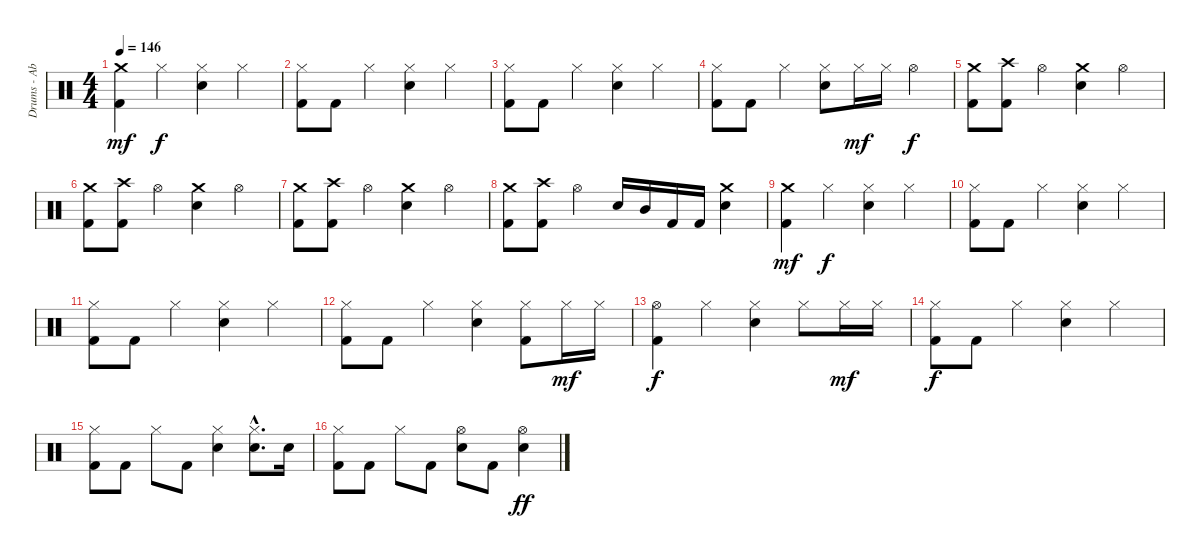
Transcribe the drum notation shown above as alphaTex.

\track ("Drums - Abe Cunningham" "Drums - Ab") {instrument percussion}
\staff {score}
\articulation defaults
\ts (4 4)
\tempo 146
\clef neutral
\ks c
("Crash medium (hit)" "Kick (hit) 2").4{dy mf} "Hi-Hat (closed)".4{dy f} ("Hi-Hat (closed)" "Electric Snare (hit)").4 "Hi-Hat (closed)".4 |
("Hi-Hat (closed)" "Kick (hit) 2").8 "Kick (hit) 2".8 "Hi-Hat (closed)".4 ("Hi-Hat (closed)" "Electric Snare (hit)").4 "Hi-Hat (closed)".4 |
("Hi-Hat (closed)" "Kick (hit) 2").8 "Kick (hit) 2".8 "Hi-Hat (closed)".4 ("Hi-Hat (closed)" "Electric Snare (hit)").4 "Hi-Hat (closed)".4 |
("Hi-Hat (closed)" "Kick (hit) 2").8 "Kick (hit) 2".8 "Hi-Hat (closed)".4 ("Hi-Hat (closed)" "Electric Snare (hit)").8 "Hi-Hat (closed)".16{dy mf} "Hi-Hat (closed)".16 "Hi-Hat (open)".4{dy f} |
("Crash medium (hit)" "Kick (hit) 2").8 ("Crash high (hit)" "Kick (hit) 2").8 "Hi-Hat (open)".4 ("Crash medium (hit)" "Electric Snare (hit)").4 "Hi-Hat (open)".4 |
("Crash medium (hit)" "Kick (hit) 2").8 ("Crash high (hit)" "Kick (hit) 2").8 "Hi-Hat (open)".4 ("Crash medium (hit)" "Electric Snare (hit)").4 "Hi-Hat (open)".4 |
("Crash medium (hit)" "Kick (hit) 2").8 ("Crash high (hit)" "Kick (hit) 2").8 "Hi-Hat (open)".4 ("Crash medium (hit)" "Electric Snare (hit)").4 "Hi-Hat (open)".4 |
("Crash medium (hit)" "Kick (hit) 2").8 ("Crash high (hit)" "Kick (hit) 2").8 "Hi-Hat (open)".4 "Electric Snare (hit)".16 "Mid Tom (hit)".16 "Kick (hit) 2".16 "Kick (hit) 2".16 ("Crash medium (hit)" "Electric Snare (hit)").4 |
("Crash medium (hit)" "Kick (hit) 2").4{dy mf} "Hi-Hat (closed)".4{dy f} ("Hi-Hat (closed)" "Electric Snare (hit)").4 "Hi-Hat (closed)".4 |
("Hi-Hat (closed)" "Kick (hit) 2").8 "Kick (hit) 2".8 "Hi-Hat (closed)".4 ("Hi-Hat (closed)" "Electric Snare (hit)").4 "Hi-Hat (closed)".4 |
("Hi-Hat (closed)" "Kick (hit) 2").8 "Kick (hit) 2".8 "Hi-Hat (closed)".4 ("Hi-Hat (closed)" "Electric Snare (hit)").4 "Hi-Hat (closed)".4 |
("Hi-Hat (closed)" "Kick (hit) 2").8 "Kick (hit) 2".8 "Hi-Hat (closed)".4 ("Hi-Hat (closed)" "Electric Snare (hit)").4 ("Hi-Hat (closed)" "Kick (hit) 2").8 "Hi-Hat (closed)".16{dy mf} "Hi-Hat (closed)".16 |
("Hi-Hat (open)" "Kick (hit) 2").4{dy f} "Hi-Hat (closed)".4 ("Hi-Hat (closed)" "Electric Snare (hit)").4 "Hi-Hat (closed)".8 "Hi-Hat (closed)".16{dy mf} "Hi-Hat (closed)".16 |
("Hi-Hat (closed)" "Kick (hit) 2").8{dy f} "Kick (hit) 2".8 "Hi-Hat (closed)".4 ("Hi-Hat (closed)" "Electric Snare (hit)").4 "Hi-Hat (closed)".4 |
("Hi-Hat (closed)" "Kick (hit) 2").8 "Kick (hit) 2".8 "Hi-Hat (closed)".8 "Kick (hit) 2".8 ("Hi-Hat (closed)" "Electric Snare (hit)").4 ("Hi-Hat (closed)"{hac} "Electric Snare (hit)"{hac}).8{d} "Electric Snare (hit)".16 |
("Hi-Hat (closed)" "Kick (hit) 2").8 "Kick (hit) 2".8 "Hi-Hat (closed)".8 "Kick (hit) 2".8 ("Hi-Hat (open)" "Electric Snare (hit)").8 "Kick (hit) 2".8 ("Hi-Hat (open)" "Electric Snare (hit)").4{dy ff}
